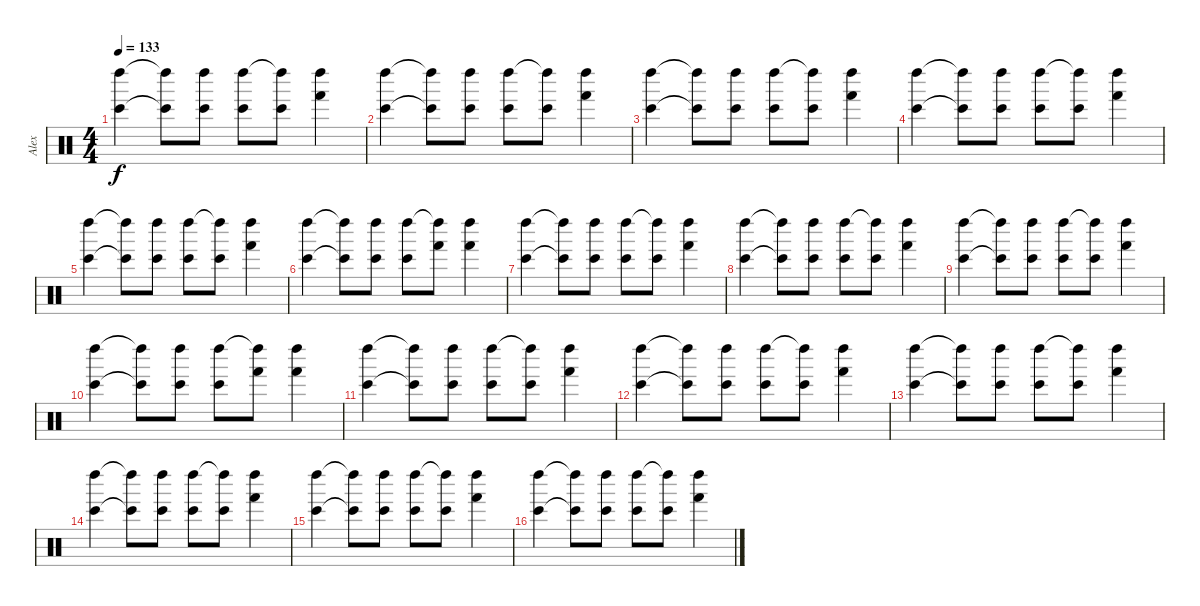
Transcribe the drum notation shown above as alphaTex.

\track ("Alex" "Alex") {instrument percussion}
\staff {score}
\articulation defaults
\ts (4 4)
\tempo 133
\clef neutral
\ks c
("Bongo High (hit)" "Left Maraca (hit)").4{dy f} ("Bongo High (hit)"{t} "Left Maraca (hit)"{t}).8 ("Bongo High (hit)" "Left Maraca (hit)").8 ("Bongo High (hit)" "Left Maraca (hit)").8 ("Bongo High (hit)" "Left Maraca (hit)"{t}).8 ("Hand (hit)" "Left Maraca (hit)").4 |
("Bongo High (hit)" "Left Maraca (hit)").4 ("Bongo High (hit)"{t} "Left Maraca (hit)"{t}).8 ("Bongo High (hit)" "Left Maraca (hit)").8 ("Bongo High (hit)" "Left Maraca (hit)").8 ("Bongo High (hit)" "Left Maraca (hit)"{t}).8 ("Hand (hit)" "Left Maraca (hit)").4 |
("Bongo High (hit)" "Left Maraca (hit)").4 ("Bongo High (hit)"{t} "Left Maraca (hit)"{t}).8 ("Bongo High (hit)" "Left Maraca (hit)").8 ("Bongo High (hit)" "Left Maraca (hit)").8 ("Bongo High (hit)" "Left Maraca (hit)"{t}).8 ("Hand (hit)" "Left Maraca (hit)").4 |
("Bongo High (hit)" "Left Maraca (hit)").4 ("Bongo High (hit)"{t} "Left Maraca (hit)"{t}).8 ("Bongo High (hit)" "Left Maraca (hit)").8 ("Bongo High (hit)" "Left Maraca (hit)").8 ("Bongo High (hit)" "Left Maraca (hit)"{t}).8 ("Hand (hit)" "Left Maraca (hit)").4 |
("Bongo High (hit)" "Left Maraca (hit)").4 ("Bongo High (hit)"{t} "Left Maraca (hit)"{t}).8 ("Bongo High (hit)" "Left Maraca (hit)").8 ("Bongo High (hit)" "Left Maraca (hit)").8 ("Bongo High (hit)" "Left Maraca (hit)"{t}).8 ("Hand (hit)" "Left Maraca (hit)").4 |
("Bongo High (hit)" "Left Maraca (hit)").4 ("Bongo High (hit)"{t} "Left Maraca (hit)"{t}).8 ("Bongo High (hit)" "Left Maraca (hit)").8 ("Bongo High (hit)" "Left Maraca (hit)").8 ("Hand (hit)" "Left Maraca (hit)"{t}).8 ("Hand (hit)" "Left Maraca (hit)").4 |
("Bongo High (hit)" "Left Maraca (hit)").4 ("Bongo High (hit)"{t} "Left Maraca (hit)"{t}).8 ("Bongo High (hit)" "Left Maraca (hit)").8 ("Bongo High (hit)" "Left Maraca (hit)").8 ("Bongo High (hit)" "Left Maraca (hit)"{t}).8 ("Hand (hit)" "Left Maraca (hit)").4 |
("Bongo High (hit)" "Left Maraca (hit)").4 ("Bongo High (hit)"{t} "Left Maraca (hit)"{t}).8 ("Bongo High (hit)" "Left Maraca (hit)").8 ("Bongo High (hit)" "Left Maraca (hit)").8 ("Bongo High (hit)" "Left Maraca (hit)"{t}).8 ("Hand (hit)" "Left Maraca (hit)").4 |
("Bongo High (hit)" "Left Maraca (hit)").4 ("Bongo High (hit)"{t} "Left Maraca (hit)"{t}).8 ("Bongo High (hit)" "Left Maraca (hit)").8 ("Bongo High (hit)" "Left Maraca (hit)").8 ("Bongo High (hit)" "Left Maraca (hit)"{t}).8 ("Hand (hit)" "Left Maraca (hit)").4 |
("Bongo High (hit)" "Left Maraca (hit)").4 ("Bongo High (hit)"{t} "Left Maraca (hit)"{t}).8 ("Bongo High (hit)" "Left Maraca (hit)").8 ("Bongo High (hit)" "Left Maraca (hit)").8 ("Hand (hit)" "Left Maraca (hit)"{t}).8 ("Hand (hit)" "Left Maraca (hit)").4 |
("Bongo High (hit)" "Left Maraca (hit)").4 ("Bongo High (hit)"{t} "Left Maraca (hit)"{t}).8 ("Bongo High (hit)" "Left Maraca (hit)").8 ("Bongo High (hit)" "Left Maraca (hit)").8 ("Bongo High (hit)" "Left Maraca (hit)"{t}).8 ("Hand (hit)" "Left Maraca (hit)").4 |
("Bongo High (hit)" "Left Maraca (hit)").4 ("Bongo High (hit)"{t} "Left Maraca (hit)"{t}).8 ("Bongo High (hit)" "Left Maraca (hit)").8 ("Bongo High (hit)" "Left Maraca (hit)").8 ("Bongo High (hit)" "Left Maraca (hit)"{t}).8 ("Hand (hit)" "Left Maraca (hit)").4 |
("Bongo High (hit)" "Left Maraca (hit)").4 ("Bongo High (hit)"{t} "Left Maraca (hit)"{t}).8 ("Bongo High (hit)" "Left Maraca (hit)").8 ("Bongo High (hit)" "Left Maraca (hit)").8 ("Bongo High (hit)" "Left Maraca (hit)"{t}).8 ("Hand (hit)" "Left Maraca (hit)").4 |
("Bongo High (hit)" "Left Maraca (hit)").4 ("Bongo High (hit)"{t} "Left Maraca (hit)"{t}).8 ("Bongo High (hit)" "Left Maraca (hit)").8 ("Bongo High (hit)" "Left Maraca (hit)").8 ("Bongo High (hit)" "Left Maraca (hit)"{t}).8 ("Hand (hit)" "Left Maraca (hit)").4 |
("Bongo High (hit)" "Left Maraca (hit)").4 ("Bongo High (hit)"{t} "Left Maraca (hit)"{t}).8 ("Bongo High (hit)" "Left Maraca (hit)").8 ("Bongo High (hit)" "Left Maraca (hit)").8 ("Bongo High (hit)" "Left Maraca (hit)"{t}).8 ("Hand (hit)" "Left Maraca (hit)").4 |
("Bongo High (hit)" "Left Maraca (hit)").4 ("Bongo High (hit)"{t} "Left Maraca (hit)"{t}).8 ("Bongo High (hit)" "Left Maraca (hit)").8 ("Bongo High (hit)" "Left Maraca (hit)").8 ("Bongo High (hit)" "Left Maraca (hit)"{t}).8 ("Hand (hit)" "Left Maraca (hit)").4
